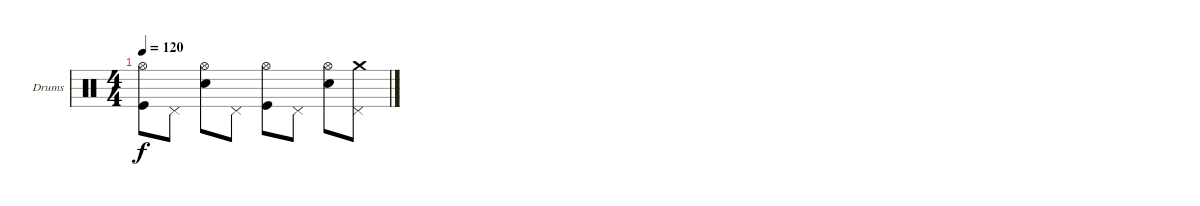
\defaultSystemsLayout 4
\bracketExtendMode groupsimilarinstruments
\firstSystemTrackNameOrientation horizontal
\otherSystemsTrackNameOrientation horizontal
\track ("Е. Кулаков" "Drums") {instrument percussion}
\staff {score}
\articulation defaults
\ts (4 4)
\tempo 120
\clef neutral
\ks c
("Kick (hit)" "Hi-Hat (open)").8{dy f} "Pedal Hi-Hat (hit)".8 ("Snare (hit) 2" "Hi-Hat (open)").8 "Pedal Hi-Hat (hit)".8 ("Kick (hit)" "Hi-Hat (open)").8 "Pedal Hi-Hat (hit)".8 ("Snare (hit) 2" "Hi-Hat (open)").8 ("Pedal Hi-Hat (hit)" "Crash medium (hit)").8
